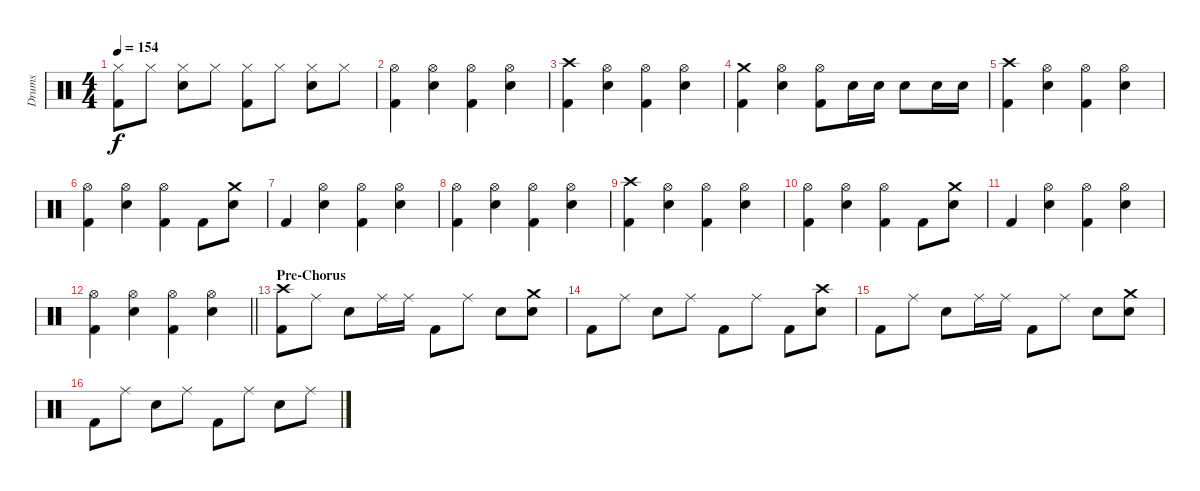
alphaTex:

\track ("Drums" "Drums") {instrument percussion}
\staff {score}
\articulation defaults
\ts (4 4)
\tempo 154
\clef neutral
\ks c
("Hi-Hat (closed)" "Kick (hit) 2").8{dy f} "Hi-Hat (closed)".8 ("Hi-Hat (closed)" "Snare (hit) 2").8 "Hi-Hat (closed)".8 ("Hi-Hat (closed)" "Kick (hit) 2").8 "Hi-Hat (closed)".8 ("Hi-Hat (closed)" "Snare (hit) 2").8 "Hi-Hat (closed)".8 |
("Hi-Hat (open)" "Kick (hit) 2").4 ("Hi-Hat (open)" "Snare (hit) 2").4 ("Hi-Hat (open)" "Kick (hit) 2").4 ("Hi-Hat (open)" "Snare (hit) 2").4 |
("Crash high (hit)" "Kick (hit) 2").4 ("Hi-Hat (open)" "Snare (hit) 2").4 ("Hi-Hat (open)" "Kick (hit) 2").4 ("Hi-Hat (open)" "Snare (hit) 2").4 |
("Crash medium (hit)" "Kick (hit) 2").4 ("Hi-Hat (open)" "Snare (hit) 2").4 ("Hi-Hat (open)" "Kick (hit) 2").8 "Snare (hit) 2".16 "Snare (hit) 2".16 "Snare (hit) 2".8 "Snare (hit) 2".16 "Snare (hit) 2".16 |
("Crash high (hit)" "Kick (hit) 2").4 ("Hi-Hat (open)" "Snare (hit) 2").4 ("Hi-Hat (open)" "Kick (hit) 2").4 ("Hi-Hat (open)" "Snare (hit) 2").4 |
("Hi-Hat (open)" "Kick (hit) 2").4 ("Hi-Hat (open)" "Snare (hit) 2").4 ("Hi-Hat (open)" "Kick (hit) 2").4 "Kick (hit) 2".8 ("Crash medium (hit)" "Snare (hit) 2").8 |
"Kick (hit) 2".4 ("Hi-Hat (open)" "Snare (hit) 2").4 ("Hi-Hat (open)" "Kick (hit) 2").4 ("Hi-Hat (open)" "Snare (hit) 2").4 |
("Hi-Hat (open)" "Kick (hit) 2").4 ("Hi-Hat (open)" "Snare (hit) 2").4 ("Hi-Hat (open)" "Kick (hit) 2").4 ("Hi-Hat (open)" "Snare (hit) 2").4 |
("Crash high (hit)" "Kick (hit) 2").4 ("Hi-Hat (open)" "Snare (hit) 2").4 ("Hi-Hat (open)" "Kick (hit) 2").4 ("Hi-Hat (open)" "Snare (hit) 2").4 |
("Hi-Hat (open)" "Kick (hit) 2").4 ("Hi-Hat (open)" "Snare (hit) 2").4 ("Hi-Hat (open)" "Kick (hit) 2").4 "Kick (hit) 2".8 ("Crash medium (hit)" "Snare (hit) 2").8 |
"Kick (hit) 2".4 ("Hi-Hat (open)" "Snare (hit) 2").4 ("Hi-Hat (open)" "Kick (hit) 2").4 ("Hi-Hat (open)" "Snare (hit) 2").4 |
\barLineRight lightlight
("Hi-Hat (open)" "Kick (hit) 2").4 ("Hi-Hat (open)" "Snare (hit) 2").4 ("Hi-Hat (open)" "Kick (hit) 2").4 ("Hi-Hat (open)" "Snare (hit) 2").4 |
\section ("" "Pre-Chorus")
("Crash high (hit)" "Kick (hit) 2").8 "Ride (middle)".8 "Snare (hit) 2".8 "Ride (middle)".16 "Ride (middle)".16 "Kick (hit) 2".8 "Ride (middle)".8 "Snare (hit) 2".8 ("Crash medium (hit)" "Snare (hit) 2").8 |
"Kick (hit) 2".8 "Ride (middle)".8 "Snare (hit) 2".8 "Ride (middle)".8 "Kick (hit) 2".8 "Ride (middle)".8 "Kick (hit) 2".8 ("Crash high (hit)" "Snare (hit) 2").8 |
"Kick (hit) 2".8 "Ride (middle)".8 "Snare (hit) 2".8 "Ride (middle)".16 "Ride (middle)".16 "Kick (hit) 2".8 "Ride (middle)".8 "Snare (hit) 2".8 ("Crash medium (hit)" "Snare (hit) 2").8 |
"Kick (hit) 2".8 "Ride (middle)".8 "Snare (hit) 2".8 "Ride (middle)".8 "Kick (hit) 2".8 "Ride (middle)".8 "Snare (hit) 2".8 "Ride (middle)".8
